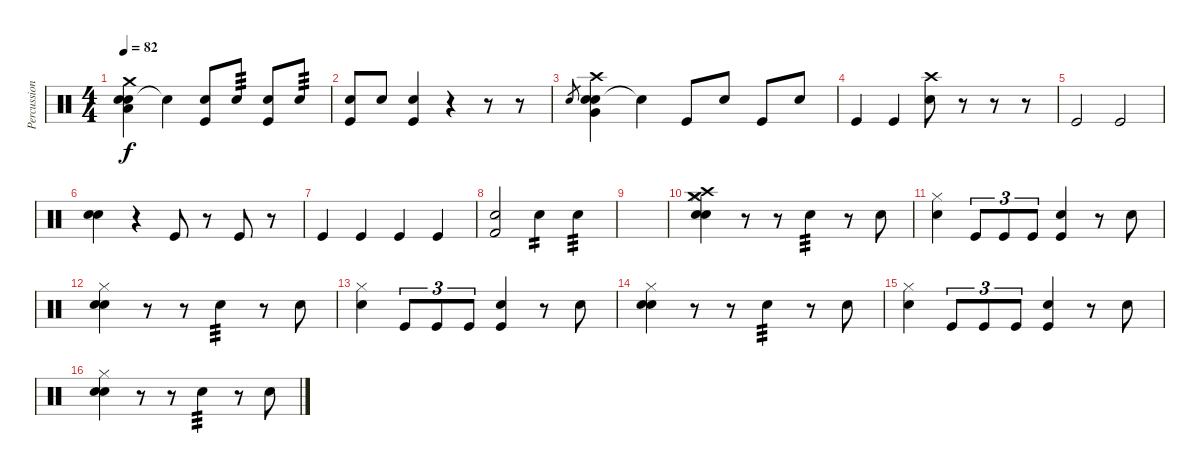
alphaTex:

\track ("Percussion" "Percussion") {instrument percussion}
\staff {score}
\articulation defaults
\ts (4 4)
\tempo 82
\clef neutral
\ks c
("Snare (hit) 2" "Electric Snare (hit)" "Low Floor Tom (hit)" "Crash medium (hit)").4{dy f} "Snare (hit)"{t}.4 ("Snare (hit) 2" "Kick (hit)").8 "Electric Snare (hit)".8{tp 3} ("Snare (hit) 2" "Kick (hit)").8 "Electric Snare (hit)".8{tp 3} |
("Snare (hit) 2" "Kick (hit)").8 "Electric Snare (hit)".8 ("Snare (hit) 2" "Kick (hit)").4 r.4 r.8 r.8 |
"Snare (hit) 2".8{gr} ("Snare (hit) 2" "Electric Snare (hit)" "Very Low Tom (hit)" "Crash high (hit)").4 "Snare (hit)"{t}.4 "Kick (hit)".8 "Electric Snare (hit)".8 "Kick (hit)".8 "Electric Snare (hit)".8 |
"Kick (hit)".4 "Kick (hit)".4 ("Snare (hit) 2" "Crash high (hit)").8 r.8 r.8 r.8 |
"Kick (hit)"{pm}.2 "Kick (hit)"{pm}.2 |
("Snare (hit) 2" "Electric Snare (hit)").4 r.4 "Kick (hit)".8 r.8 "Kick (hit)".8 r.8 |
"Kick (hit)".4{volume 12} "Kick (hit)".4 "Kick (hit)".4 "Kick (hit)".4 |
("Snare (hit) 2" "Kick (hit) 2").2 "Electric Snare (hit)".4{tp 2} "Electric Snare (hit)".4{tp 3} |
|
("Snare (hit) 2" "Hi-Hat (closed)" "Crash medium (hit)" "Electric Snare (hit)" "Crash high (hit)").4 r.8 r.8 "Snare (hit) 2".4{tp 3} r.8 "Snare (hit) 2".8 |
("Snare (hit) 2" "Hi-Hat (closed)").4 "Kick (hit)".8{tu (3 2)} "Kick (hit)".8{tu (3 2)} "Kick (hit)".8{tu (3 2)} ("Snare (hit) 2" "Kick (hit)").4 r.8 "Snare (hit) 2".8 |
("Snare (hit) 2" "Hi-Hat (closed)" "Electric Snare (hit)").4 r.8 r.8 "Snare (hit) 2".4{tp 3} r.8 "Snare (hit) 2".8 |
("Snare (hit) 2" "Hi-Hat (closed)").4 "Kick (hit)".8{tu (3 2)} "Kick (hit)".8{tu (3 2)} "Kick (hit)".8{tu (3 2)} ("Snare (hit) 2" "Kick (hit)").4 r.8 "Snare (hit) 2".8 |
("Snare (hit) 2" "Hi-Hat (closed)" "Electric Snare (hit)").4 r.8 r.8 "Snare (hit) 2".4{tp 3} r.8 "Snare (hit) 2".8 |
("Snare (hit) 2" "Hi-Hat (closed)").4 "Kick (hit)".8{tu (3 2)} "Kick (hit)".8{tu (3 2)} "Kick (hit)".8{tu (3 2)} ("Snare (hit) 2" "Kick (hit)").4 r.8 "Snare (hit) 2".8 |
("Snare (hit) 2" "Hi-Hat (closed)" "Electric Snare (hit)").4 r.8 r.8 "Snare (hit) 2".4{tp 3} r.8 "Snare (hit) 2".8
